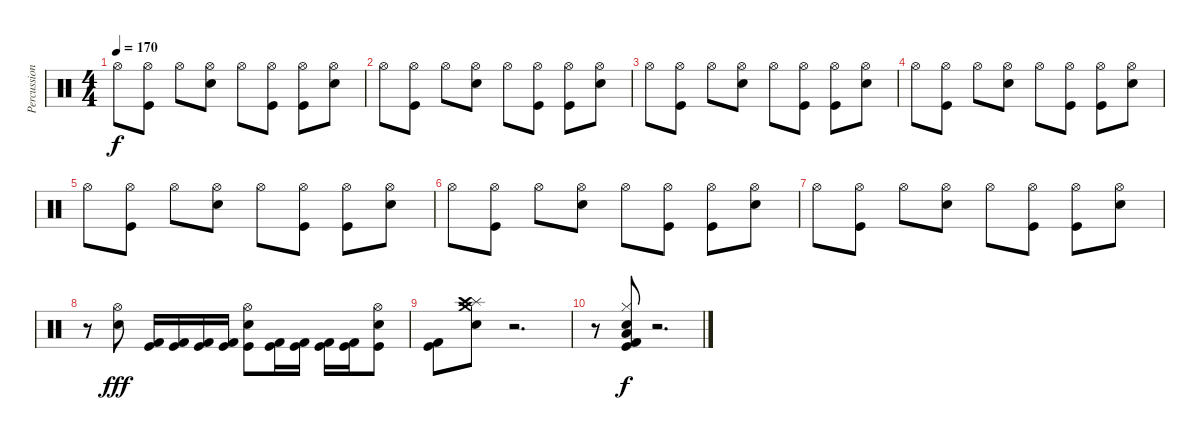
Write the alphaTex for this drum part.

\track ("Percussion" "Percussion") {instrument percussion}
\staff {score}
\articulation defaults
\ts (4 4)
\tempo 170
\clef neutral
\ks c "Hi-Hat (open)".8{dy f}
("Hi-Hat (open)" "Kick (hit)").8 "Hi-Hat (open)".8 ("Hi-Hat (open)" "Electric Snare (hit)").8 "Hi-Hat (open)".8 ("Hi-Hat (open)" "Kick (hit)").8 ("Hi-Hat (open)" "Kick (hit)").8 ("Hi-Hat (open)" "Electric Snare (hit)").8 |
"Hi-Hat (open)".8 ("Hi-Hat (open)" "Kick (hit)").8 "Hi-Hat (open)".8 ("Hi-Hat (open)" "Electric Snare (hit)").8 "Hi-Hat (open)".8 ("Hi-Hat (open)" "Kick (hit)").8 ("Hi-Hat (open)" "Kick (hit)").8 ("Hi-Hat (open)" "Electric Snare (hit)").8 |
"Hi-Hat (open)".8 ("Hi-Hat (open)" "Kick (hit)").8 "Hi-Hat (open)".8 ("Hi-Hat (open)" "Electric Snare (hit)").8 "Hi-Hat (open)".8 ("Hi-Hat (open)" "Kick (hit)").8 ("Hi-Hat (open)" "Kick (hit)").8 ("Hi-Hat (open)" "Electric Snare (hit)").8 |
"Hi-Hat (open)".8 ("Hi-Hat (open)" "Kick (hit)").8 "Hi-Hat (open)".8 ("Hi-Hat (open)" "Electric Snare (hit)").8 "Hi-Hat (open)".8 ("Hi-Hat (open)" "Kick (hit)").8 ("Hi-Hat (open)" "Kick (hit)").8 ("Hi-Hat (open)" "Electric Snare (hit)").8 |
"Hi-Hat (open)".8 ("Hi-Hat (open)" "Kick (hit)").8 "Hi-Hat (open)".8 ("Hi-Hat (open)" "Electric Snare (hit)").8 "Hi-Hat (open)".8 ("Hi-Hat (open)" "Kick (hit)").8 ("Hi-Hat (open)" "Kick (hit)").8 ("Hi-Hat (open)" "Electric Snare (hit)").8 |
"Hi-Hat (open)".8 ("Hi-Hat (open)" "Kick (hit)").8 "Hi-Hat (open)".8 ("Hi-Hat (open)" "Electric Snare (hit)").8 "Hi-Hat (open)".8 ("Hi-Hat (open)" "Kick (hit)").8 ("Hi-Hat (open)" "Kick (hit)").8 ("Hi-Hat (open)" "Electric Snare (hit)").8 |
"Hi-Hat (open)".8 ("Hi-Hat (open)" "Kick (hit)").8 "Hi-Hat (open)".8 ("Hi-Hat (open)" "Electric Snare (hit)").8 "Hi-Hat (open)".8 ("Hi-Hat (open)" "Kick (hit)").8 ("Hi-Hat (open)" "Kick (hit)").8 ("Hi-Hat (open)" "Electric Snare (hit)").8 |
r.8 ("Hi-Hat (open)" "Electric Snare (hit)").8{dy fff} ("Kick (hit) 2" "Kick (hit)").16 ("Kick (hit) 2" "Kick (hit)").16 ("Kick (hit) 2" "Kick (hit)").16 ("Kick (hit) 2" "Kick (hit)").16 ("Hi-Hat (open)" "Electric Snare (hit)" "Kick (hit)").8 ("Kick (hit) 2" "Kick (hit)").16 ("Kick (hit) 2" "Kick (hit)").16 ("Kick (hit) 2" "Kick (hit)").16 ("Kick (hit) 2" "Kick (hit)").16 ("Hi-Hat (open)" "Electric Snare (hit)" "Kick (hit)").8 |
("Kick (hit) 2" "Kick (hit)").8 ("Splash (hit)" "Crash medium (hit)" "Crash high (hit)" "Electric Snare (hit)").8 r.2{d} |
r.8 ("Kick (hit) 2" "Hi-Hat (closed)" "Kick (hit)" "Low Floor Tom (hit)" "Electric Snare (hit)").8{dy f} r.2{d}
